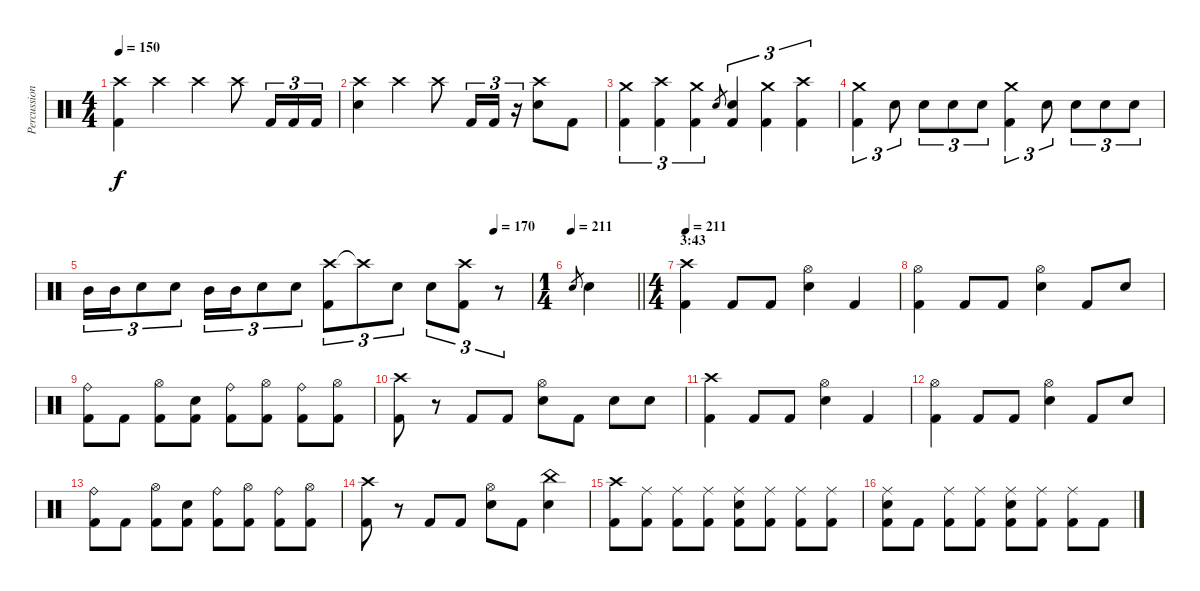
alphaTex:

\track ("Percussion" "Percussion") {instrument percussion}
\staff {score}
\articulation defaults
\ts (4 4)
\tempo 150
\clef neutral
\ks c
("Kick (hit) 2" "Crash high (hit)").4{dy f} "Crash high (hit)".4 "Crash high (hit)".4 "Crash high (hit)".8 "Kick (hit) 2".16{tu (3 2)} "Kick (hit) 2".16{tu (3 2)} "Kick (hit) 2".16{tu (3 2)} |
("Crash high (hit)" "Electric Snare (hit)").4 "Crash high (hit)".4 "Crash high (hit)".8 "Kick (hit) 2".16{tu (3 2)} "Kick (hit) 2".16{tu (3 2)} r.16{tu (3 2)} ("Crash high (hit)" "Electric Snare (hit)").8 "Kick (hit) 2".8 |
("Crash medium (hit)" "Kick (hit) 2").4{tu (3 2)} ("Kick (hit) 2" "Crash high (hit)").4{tu (3 2)} ("Kick (hit) 2" "Crash medium (hit)").4{tu (3 2)} "Electric Snare (hit)".8{gr} ("Kick (hit) 2" "Electric Snare (hit)").4{tu (3 2)} ("Kick (hit) 2" "Crash medium (hit)").4{tu (3 2)} ("Kick (hit) 2" "Crash high (hit)").4{tu (3 2)} |
("Crash medium (hit)" "Kick (hit) 2").4{tu (3 2)} "Electric Snare (hit)".8{tu (3 2)} "Electric Snare (hit)".8{tu (3 2)} "Electric Snare (hit)".8{tu (3 2)} "Electric Snare (hit)".8{tu (3 2)} ("Crash medium (hit)" "Kick (hit) 2").4{tu (3 2)} "Electric Snare (hit)".8{tu (3 2)} "Electric Snare (hit)".8{tu (3 2)} "Electric Snare (hit)".8{tu (3 2)} "Electric Snare (hit)".8{tu (3 2)} |
\tempo (170 0.9166666666666666)
"Mid Tom (hit)".16{tu (3 2)} "Mid Tom (hit)".16{tu (3 2)} "Electric Snare (hit)".8{tu (3 2)} "Electric Snare (hit)".8{tu (3 2)} "Mid Tom (hit)".16{tu (3 2)} "Mid Tom (hit)".16{tu (3 2)} "Electric Snare (hit)".8{tu (3 2)} "Electric Snare (hit)".8{tu (3 2)} ("Crash high (hit)" "Kick (hit) 2").8{tu (3 2)} "Crash high (hit)"{t}.8{tu (3 2)} "Electric Snare (hit)".8{tu (3 2)} "Electric Snare (hit)".8{tu (3 2)} ("Kick (hit) 2" "Crash high (hit)").8{tu (3 2)} r.8{tu (3 2)} |
\ts (1 4)
\tempo 211
\barLineRight lightlight "Electric Snare (hit)".8{gr} "Electric Snare (hit)".4
|
\ts (4 4)
\section ("" "3:43")
\tempo 211
("Crash high (hit)" "Kick (hit) 2").4 "Kick (hit) 2".8 "Kick (hit) 2".8 ("Electric Snare (hit)" "Hi-Hat (open)").4 "Kick (hit) 2".4 |
("Hi-Hat (open)" "Kick (hit) 2").4 "Kick (hit) 2".8 "Kick (hit) 2".8 ("Electric Snare (hit)" "Hi-Hat (open)").4 "Kick (hit) 2".8 "Electric Snare (hit)".8 |
("Ride (bell)" "Kick (hit) 2").8 "Kick (hit) 2".8 ("Kick (hit) 2" "Hi-Hat (open)").8 ("Kick (hit) 2" "Electric Snare (hit)").8 ("Kick (hit) 2" "Ride (bell)").8 ("Kick (hit) 2" "Hi-Hat (open)").8 ("Ride (bell)" "Kick (hit) 2").8 ("Kick (hit) 2" "Hi-Hat (open)").8 |
("Kick (hit) 2" "Crash high (hit)").8 r.8 "Kick (hit) 2".8 "Kick (hit) 2".8 ("Hi-Hat (open)" "Electric Snare (hit)").8 "Kick (hit) 2".8 "Electric Snare (hit)".8 "Electric Snare (hit)".8 |
("Crash high (hit)" "Kick (hit) 2").4 "Kick (hit) 2".8 "Kick (hit) 2".8 ("Electric Snare (hit)" "Hi-Hat (open)").4 "Kick (hit) 2".4 |
("Hi-Hat (open)" "Kick (hit) 2").4 "Kick (hit) 2".8 "Kick (hit) 2".8 ("Electric Snare (hit)" "Hi-Hat (open)").4 "Kick (hit) 2".8 "Electric Snare (hit)".8 |
("Ride (bell)" "Kick (hit) 2").8 "Kick (hit) 2".8 ("Kick (hit) 2" "Hi-Hat (open)").8 ("Kick (hit) 2" "Electric Snare (hit)").8 ("Kick (hit) 2" "Ride (bell)").8 ("Kick (hit) 2" "Hi-Hat (open)").8 ("Ride (bell)" "Kick (hit) 2").8 ("Kick (hit) 2" "Hi-Hat (open)").8 |
("Kick (hit) 2" "Crash high (hit)").8 r.8 "Kick (hit) 2".8 "Kick (hit) 2".8 ("Hi-Hat (open)" "Electric Snare (hit)").8 "Kick (hit) 2".8 ("China (hit)" "Electric Snare (hit)").4 |
("Kick (hit) 2" "Crash high (hit)").8 ("Kick (hit) 2" "Ride (middle)").8 ("Kick (hit) 2" "Ride (middle)").8 ("Kick (hit) 2" "Ride (middle)").8 ("Kick (hit) 2" "Ride (middle)" "Electric Snare (hit)").8 ("Kick (hit) 2" "Ride (middle)").8 ("Kick (hit) 2" "Ride (middle)").8 ("Kick (hit) 2" "Ride (middle)").8 |
("Kick (hit) 2" "Ride (middle)" "Electric Snare (hit)").8 "Kick (hit) 2".8 ("Kick (hit) 2" "Ride (middle)").8 ("Kick (hit) 2" "Ride (middle)").8 ("Kick (hit) 2" "Ride (middle)" "Electric Snare (hit)").8 ("Kick (hit) 2" "Ride (middle)").8 ("Kick (hit) 2" "Ride (middle)").8 "Kick (hit) 2".8
